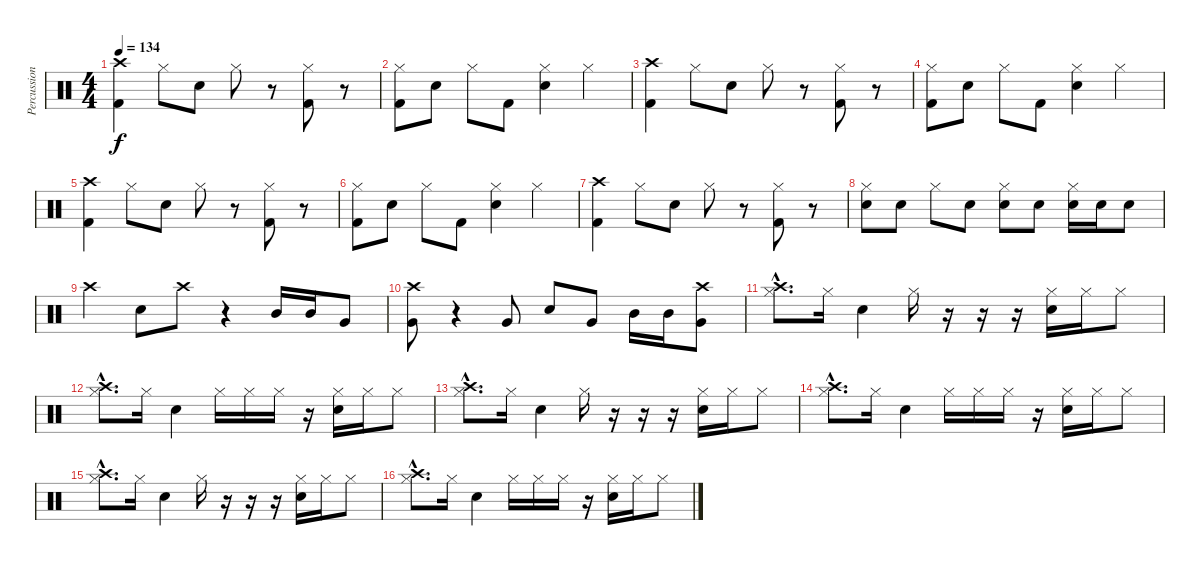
\track ("Percussions" "Percussion") {instrument percussion}
\staff {score}
\articulation defaults
\ts (4 4)
\tempo 134
\clef neutral
\ks c
("Kick (hit) 2" "Crash high (hit)").4{dy f} "Hi-Hat (closed)".8 "Snare (hit) 2".8 "Hi-Hat (closed)".8 r.8 ("Kick (hit) 2" "Hi-Hat (closed)").8 r.8 |
("Kick (hit) 2" "Hi-Hat (closed)").8 "Snare (hit) 2".8 "Hi-Hat (closed)".8 "Kick (hit) 2".8 ("Snare (hit) 2" "Hi-Hat (closed)").4 "Hi-Hat (closed)".4 |
("Kick (hit) 2" "Crash high (hit)").4 "Hi-Hat (closed)".8 "Snare (hit) 2".8 "Hi-Hat (closed)".8 r.8 ("Kick (hit) 2" "Hi-Hat (closed)").8 r.8 |
("Kick (hit) 2" "Hi-Hat (closed)").8 "Snare (hit) 2".8 "Hi-Hat (closed)".8 "Kick (hit) 2".8 ("Snare (hit) 2" "Hi-Hat (closed)").4 "Hi-Hat (closed)".4 |
("Kick (hit) 2" "Crash high (hit)").4 "Hi-Hat (closed)".8 "Snare (hit) 2".8 "Hi-Hat (closed)".8 r.8 ("Kick (hit) 2" "Hi-Hat (closed)").8 r.8 |
("Kick (hit) 2" "Hi-Hat (closed)").8 "Snare (hit) 2".8 "Hi-Hat (closed)".8 "Kick (hit) 2".8 ("Snare (hit) 2" "Hi-Hat (closed)").4 "Hi-Hat (closed)".4 |
("Kick (hit) 2" "Crash high (hit)").4 "Hi-Hat (closed)".8 "Snare (hit) 2".8 "Hi-Hat (closed)".8 r.8 ("Kick (hit) 2" "Hi-Hat (closed)").8 r.8 |
("Electric Snare (hit)" "Hi-Hat (closed)").8 "Snare (hit) 2".8 "Hi-Hat (closed)".8 "Snare (hit) 2".8 ("Snare (hit) 2" "Hi-Hat (closed)").8 "Snare (hit) 2".8 ("Snare (hit) 2" "Hi-Hat (closed)").16 "Snare (hit) 2".16 "Snare (hit) 2".8 |
"Crash high (hit)".4 "Snare (hit) 2".8 "Crash high (hit)".8 r.4 "Mid Tom (hit)".16 "Mid Tom (hit)".16 "Very Low Tom (hit)".8 |
("Crash high (hit)" "Very Low Tom (hit)").8 r.4 "Very Low Tom (hit)".8 "Electric Snare (hit)".8 "Very Low Tom (hit)".8 "Mid Tom (hit)".16 "Mid Tom (hit)".16 ("Crash high (hit)" "Very Low Tom (hit)").8 |
("Crash high (hit)"{hac} "Hi-Hat (closed)"{hac}).8{d} "Hi-Hat (closed)".16 "Electric Snare (hit)".4 "Hi-Hat (closed)".16 r.16 r.16 r.16 ("Hi-Hat (closed)" "Electric Snare (hit)").16 "Hi-Hat (closed)".16 "Hi-Hat (closed)".8 |
("Crash high (hit)"{hac} "Hi-Hat (closed)"{hac}).8{d} "Hi-Hat (closed)".16 "Electric Snare (hit)".4 "Hi-Hat (closed)".16 "Hi-Hat (closed)".16 "Hi-Hat (closed)".16 r.16 ("Hi-Hat (closed)" "Electric Snare (hit)").16 "Hi-Hat (closed)".16 "Hi-Hat (closed)".8 |
("Crash high (hit)"{hac} "Hi-Hat (closed)"{hac}).8{d} "Hi-Hat (closed)".16 "Electric Snare (hit)".4 "Hi-Hat (closed)".16 r.16 r.16 r.16 ("Hi-Hat (closed)" "Electric Snare (hit)").16 "Hi-Hat (closed)".16 "Hi-Hat (closed)".8 |
("Crash high (hit)"{hac} "Hi-Hat (closed)"{hac}).8{d} "Hi-Hat (closed)".16 "Electric Snare (hit)".4 "Hi-Hat (closed)".16 "Hi-Hat (closed)".16 "Hi-Hat (closed)".16 r.16 ("Hi-Hat (closed)" "Electric Snare (hit)").16 "Hi-Hat (closed)".16 "Hi-Hat (closed)".8 |
("Crash high (hit)"{hac} "Hi-Hat (closed)"{hac}).8{d} "Hi-Hat (closed)".16 "Electric Snare (hit)".4 "Hi-Hat (closed)".16 r.16 r.16 r.16 ("Hi-Hat (closed)" "Electric Snare (hit)").16 "Hi-Hat (closed)".16 "Hi-Hat (closed)".8 |
("Crash high (hit)"{hac} "Hi-Hat (closed)"{hac}).8{d} "Hi-Hat (closed)".16 "Electric Snare (hit)".4 "Hi-Hat (closed)".16 "Hi-Hat (closed)".16 "Hi-Hat (closed)".16 r.16 ("Hi-Hat (closed)" "Electric Snare (hit)").16 "Hi-Hat (closed)".16 "Hi-Hat (closed)".8
